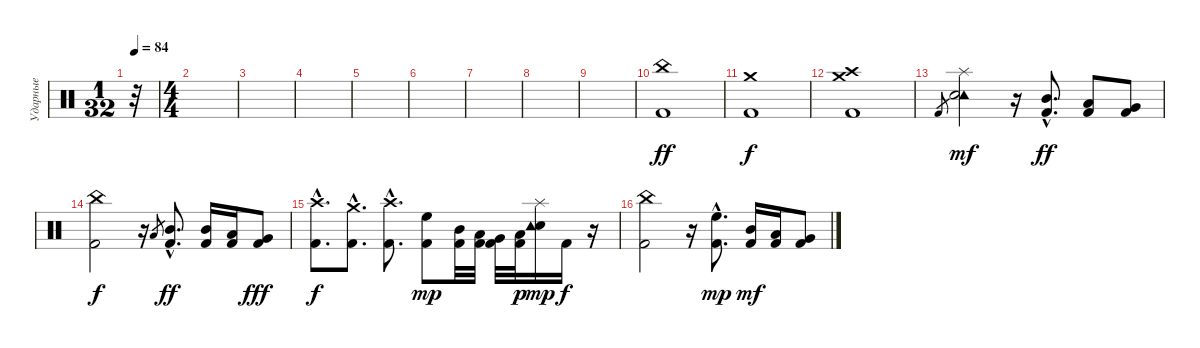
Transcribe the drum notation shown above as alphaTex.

\track ("Ударные" "Ударные") {instrument percussion}
\staff {score}
\articulation defaults
\ts (1 32)
\tempo 84
\clef neutral
\ks c
r.32{dy ff} |
\ts (4 4)
|
|
|
|
|
|
|
|
("Kick (hit) 2" "China (hit)").1 |
("Kick (hit) 2" "Crash medium (hit)").1{dy f} |
("Kick (hit) 2" "Crash medium (hit)" "Crash high (hit)").1 |
"Kick (hit) 2".8{gr} ("Tambourine (hit)" "Electric Snare (hit)" "Splash (hit)").2{dy mf} r.16 ("Kick (hit) 2"{hac} "Mid Tom (hit)"{hac}).8{d dy ff} ("Kick (hit) 2" "Low Tom (hit)").8 ("Kick (hit) 2" "Very Low Tom (hit)").8 |
("Kick (hit) 2" "China (hit)").2{dy f} r.16 "Low Tom (hit)".8{gr} ("Kick (hit) 2"{hac} "Mid Tom (hit)"{hac}).8{d dy ff} ("Kick (hit) 2" "Mid Tom (hit)").16 ("Kick (hit) 2" "Low Tom (hit)").16 ("Kick (hit) 2" "Very Low Tom (hit)").8{dy fff} |
("Kick (hit) 2"{hac} "Crash high (hit)"{hac}).8{d dy f} ("Kick (hit) 2"{hac} "Crash medium (hit)"{hac}).8{d} ("Kick (hit) 2"{hac} "Crash high (hit)"{hac}).8{d} ("High Floor Tom (hit)" "Kick (hit) 2").8{dy mp} ("Mid Tom (hit)" "Kick (hit) 2").32 ("Low Tom (hit)" "Kick (hit) 2").32 ("Very Low Tom (hit)" "Kick (hit) 2").32 ("Low Floor Tom (hit)" "Kick (hit) 2").32{dy p} ("Electric Snare (hit)" "Tambourine (hit)" "Splash (hit)").16{dy mp} "Kick (hit) 2".16{dy f} r.16 |
("Kick (hit) 2" "China (hit)").2 r.16 ("High Floor Tom (hit)"{hac} "Kick (hit) 2"{hac}).8{d dy mp} ("Mid Tom (hit)" "Kick (hit) 2").16{dy mf} ("Low Tom (hit)" "Kick (hit) 2").16 ("Very Low Tom (hit)" "Kick (hit) 2").8
